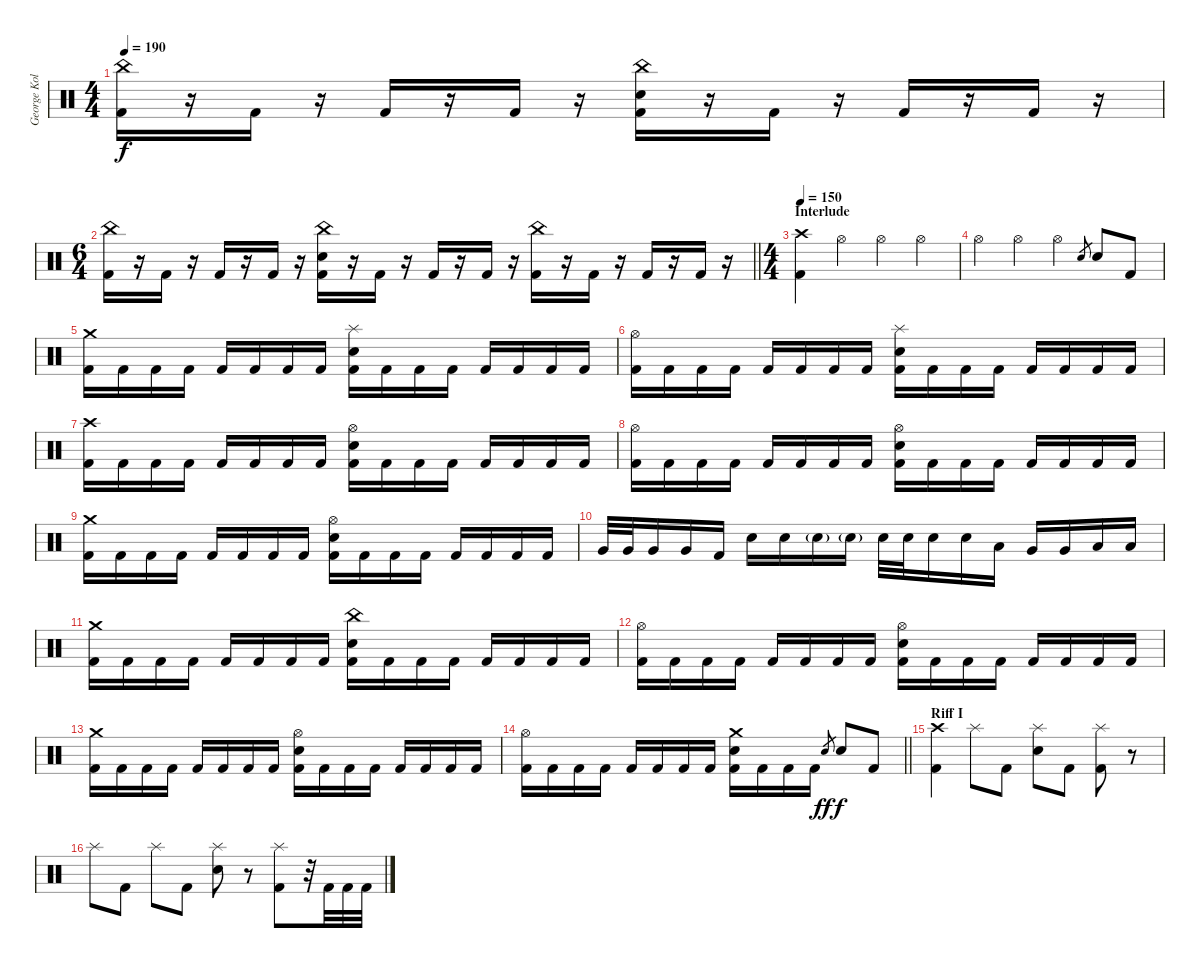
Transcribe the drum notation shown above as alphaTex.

\track ("George Kollias" "George Kol") {instrument percussion}
\staff {score}
\articulation defaults
\ts (4 4)
\tempo 190
\clef neutral
\ks c
("China (hit)" "Kick (hit) 2").16{dy f} r.16 "Kick (hit) 2".16 r.16 "Kick (hit) 2".16 r.16 "Kick (hit) 2".16 r.16 ("China (hit)" "Electric Snare (hit)" "Kick (hit) 2").16 r.16 "Kick (hit) 2".16 r.16 "Kick (hit) 2".16 r.16 "Kick (hit) 2".16 r.16 |
\ts (6 4)
\barLineRight lightlight
("China (hit)" "Kick (hit) 2").16 r.16 "Kick (hit) 2".16 r.16 "Kick (hit) 2".16 r.16 "Kick (hit) 2".16 r.16 ("China (hit)" "Electric Snare (hit)" "Kick (hit) 2").16 r.16 "Kick (hit) 2".16 r.16 "Kick (hit) 2".16 r.16 "Kick (hit) 2".16 r.16 ("China (hit)" "Kick (hit) 2").16 r.16 "Kick (hit) 2".16 r.16 "Kick (hit) 2".16 r.16 "Kick (hit) 2".16 r.16 |
\ts (4 4)
\section ("" "Interlude")
\tempo 150
("Crash high (hit)" "Kick (hit) 2").4 "Hi-Hat (open)".4 "Hi-Hat (open)".4 "Hi-Hat (open)".4 |
"Hi-Hat (open)".4 "Hi-Hat (open)".4 "Hi-Hat (open)".4 "Electric Snare (hit)".8{gr} "Electric Snare (hit)".8 "Kick (hit) 2".8 |
("Crash medium (hit)" "Kick (hit) 2").16 "Kick (hit) 2".16 "Kick (hit) 2".16 "Kick (hit) 2".16 "Kick (hit) 2".16 "Kick (hit) 2".16 "Kick (hit) 2".16 "Kick (hit) 2".16 ("Splash (hit)" "Electric Snare (hit)" "Kick (hit) 2").16 "Kick (hit) 2".16 "Kick (hit) 2".16 "Kick (hit) 2".16 "Kick (hit) 2".16 "Kick (hit) 2".16 "Kick (hit) 2".16 "Kick (hit) 2".16 |
("Hi-Hat (open)" "Kick (hit) 2").16 "Kick (hit) 2".16 "Kick (hit) 2".16 "Kick (hit) 2".16 "Kick (hit) 2".16 "Kick (hit) 2".16 "Kick (hit) 2".16 "Kick (hit) 2".16 ("Splash (hit)" "Electric Snare (hit)" "Kick (hit) 2").16 "Kick (hit) 2".16 "Kick (hit) 2".16 "Kick (hit) 2".16 "Kick (hit) 2".16 "Kick (hit) 2".16 "Kick (hit) 2".16 "Kick (hit) 2".16 |
("Crash high (hit)" "Kick (hit) 2").16 "Kick (hit) 2".16 "Kick (hit) 2".16 "Kick (hit) 2".16 "Kick (hit) 2".16 "Kick (hit) 2".16 "Kick (hit) 2".16 "Kick (hit) 2".16 ("Hi-Hat (open)" "Electric Snare (hit)" "Kick (hit) 2").16 "Kick (hit) 2".16 "Kick (hit) 2".16 "Kick (hit) 2".16 "Kick (hit) 2".16 "Kick (hit) 2".16 "Kick (hit) 2".16 "Kick (hit) 2".16 |
("Hi-Hat (open)" "Kick (hit) 2").16 "Kick (hit) 2".16 "Kick (hit) 2".16 "Kick (hit) 2".16 "Kick (hit) 2".16 "Kick (hit) 2".16 "Kick (hit) 2".16 "Kick (hit) 2".16 ("Hi-Hat (open)" "Electric Snare (hit)" "Kick (hit) 2").16 "Kick (hit) 2".16 "Kick (hit) 2".16 "Kick (hit) 2".16 "Kick (hit) 2".16 "Kick (hit) 2".16 "Kick (hit) 2".16 "Kick (hit) 2".16 |
("Crash medium (hit)" "Kick (hit) 2").16 "Kick (hit) 2".16 "Kick (hit) 2".16 "Kick (hit) 2".16 "Kick (hit) 2".16 "Kick (hit) 2".16 "Kick (hit) 2".16 "Kick (hit) 2".16 ("Hi-Hat (open)" "Electric Snare (hit)" "Kick (hit) 2").16 "Kick (hit) 2".16 "Kick (hit) 2".16 "Kick (hit) 2".16 "Kick (hit) 2".16 "Kick (hit) 2".16 "Kick (hit) 2".16 "Kick (hit) 2".16 |
"Very Low Tom (hit)".32 "Very Low Tom (hit)".32 "Very Low Tom (hit)".16 "Very Low Tom (hit)".16 "Kick (hit) 2".16 "Electric Snare (hit)".16 "Electric Snare (hit)".16 "Electric Snare (hit)"{g}.16 "Electric Snare (hit)"{g}.16 "Electric Snare (hit)".32 "Electric Snare (hit)".32 "Electric Snare (hit)".16 "Electric Snare (hit)".16 "Low Tom (hit)".16 "Very Low Tom (hit)".16 "Very Low Tom (hit)".16 "Low Floor Tom (hit)".16 "Low Floor Tom (hit)".16 |
("Crash medium (hit)" "Kick (hit) 2").16 "Kick (hit) 2".16 "Kick (hit) 2".16 "Kick (hit) 2".16 "Kick (hit) 2".16 "Kick (hit) 2".16 "Kick (hit) 2".16 "Kick (hit) 2".16 ("China (hit)" "Electric Snare (hit)" "Kick (hit) 2").16 "Kick (hit) 2".16 "Kick (hit) 2".16 "Kick (hit) 2".16 "Kick (hit) 2".16 "Kick (hit) 2".16 "Kick (hit) 2".16 "Kick (hit) 2".16 |
("Hi-Hat (open)" "Kick (hit) 2").16 "Kick (hit) 2".16 "Kick (hit) 2".16 "Kick (hit) 2".16 "Kick (hit) 2".16 "Kick (hit) 2".16 "Kick (hit) 2".16 "Kick (hit) 2".16 ("Hi-Hat (open)" "Electric Snare (hit)" "Kick (hit) 2").16 "Kick (hit) 2".16 "Kick (hit) 2".16 "Kick (hit) 2".16 "Kick (hit) 2".16 "Kick (hit) 2".16 "Kick (hit) 2".16 "Kick (hit) 2".16 |
("Crash medium (hit)" "Kick (hit) 2").16 "Kick (hit) 2".16 "Kick (hit) 2".16 "Kick (hit) 2".16 "Kick (hit) 2".16 "Kick (hit) 2".16 "Kick (hit) 2".16 "Kick (hit) 2".16 ("Hi-Hat (open)" "Electric Snare (hit)" "Kick (hit) 2").16 "Kick (hit) 2".16 "Kick (hit) 2".16 "Kick (hit) 2".16 "Kick (hit) 2".16 "Kick (hit) 2".16 "Kick (hit) 2".16 "Kick (hit) 2".16 |
\barLineRight lightlight
("Hi-Hat (open)" "Kick (hit) 2").16 "Kick (hit) 2".16 "Kick (hit) 2".16 "Kick (hit) 2".16 "Kick (hit) 2".16 "Kick (hit) 2".16 "Kick (hit) 2".16 "Kick (hit) 2".16 ("Crash medium (hit)" "Electric Snare (hit)" "Kick (hit) 2").16 "Kick (hit) 2".16 "Kick (hit) 2".16 "Kick (hit) 2".16 "Electric Snare (hit)".8{gr dy ff} "Electric Snare (hit)".8{dy f} "Kick (hit) 2".8 |
\section ("" "Riff I")
("Crash high (hit)" "Kick (hit) 2").4 "Splash (hit)".8 "Kick (hit) 2".8 ("Splash (hit)" "Electric Snare (hit)").8 "Kick (hit) 2".8 ("Splash (hit)" "Kick (hit) 2").8 r.8 |
"Splash (hit)".8 "Kick (hit) 2".8 "Splash (hit)".8 "Kick (hit) 2".8 ("Splash (hit)" "Electric Snare (hit)").8 r.8 ("Splash (hit)" "Kick (hit) 2").8 r.32 "Kick (hit) 2".32 "Kick (hit) 2".32 "Kick (hit) 2".32
